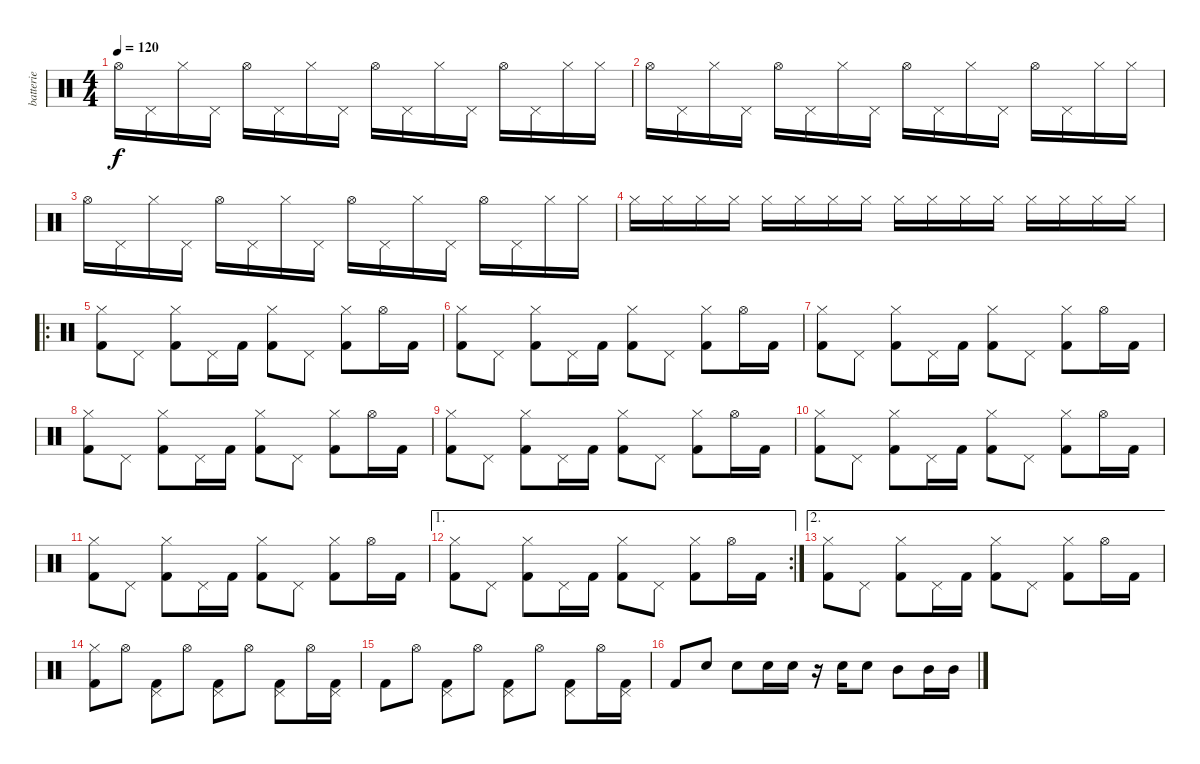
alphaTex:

\track ("batterie" "batterie") {instrument percussion}
\staff {score}
\articulation defaults
\ts (4 4)
\tempo 120
\clef neutral
\ks c "Hi-Hat (open)".16{dy f} "Pedal Hi-Hat (hit)".16 "Hi-Hat (closed)".16 "Pedal Hi-Hat (hit)".16 "Hi-Hat (open)".16 "Pedal Hi-Hat (hit)".16 "Hi-Hat (closed)".16 "Pedal Hi-Hat (hit)".16 "Hi-Hat (open)".16 "Pedal Hi-Hat (hit)".16 "Hi-Hat (closed)".16 "Pedal Hi-Hat (hit)".16 "Hi-Hat (open)".16 "Pedal Hi-Hat (hit)".16 "Hi-Hat (closed)".16 "Hi-Hat (closed)".16
|
"Hi-Hat (open)".16 "Pedal Hi-Hat (hit)".16 "Hi-Hat (closed)".16 "Pedal Hi-Hat (hit)".16 "Hi-Hat (open)".16 "Pedal Hi-Hat (hit)".16 "Hi-Hat (closed)".16 "Pedal Hi-Hat (hit)".16 "Hi-Hat (open)".16 "Pedal Hi-Hat (hit)".16 "Hi-Hat (closed)".16 "Pedal Hi-Hat (hit)".16 "Hi-Hat (open)".16 "Pedal Hi-Hat (hit)".16 "Hi-Hat (closed)".16 "Hi-Hat (closed)".16 |
"Hi-Hat (open)".16 "Pedal Hi-Hat (hit)".16 "Hi-Hat (closed)".16 "Pedal Hi-Hat (hit)".16 "Hi-Hat (open)".16 "Pedal Hi-Hat (hit)".16 "Hi-Hat (closed)".16 "Pedal Hi-Hat (hit)".16 "Hi-Hat (open)".16 "Pedal Hi-Hat (hit)".16 "Hi-Hat (closed)".16 "Pedal Hi-Hat (hit)".16 "Hi-Hat (open)".16 "Pedal Hi-Hat (hit)".16 "Hi-Hat (closed)".16 "Hi-Hat (closed)".16 |
"Hi-Hat (closed)".16 "Hi-Hat (closed)".16 "Hi-Hat (closed)".16 "Hi-Hat (closed)".16 "Hi-Hat (closed)".16 "Hi-Hat (closed)".16 "Hi-Hat (closed)".16 "Hi-Hat (closed)".16 "Hi-Hat (closed)".16 "Hi-Hat (closed)".16 "Hi-Hat (closed)".16 "Hi-Hat (closed)".16 "Hi-Hat (closed)".16 "Hi-Hat (closed)".16 "Hi-Hat (closed)".16 "Hi-Hat (closed)".16 |
\ro
("Kick (hit) 2" "Hi-Hat (closed)").8 "Pedal Hi-Hat (hit)".8 ("Kick (hit) 2" "Hi-Hat (closed)").8 "Pedal Hi-Hat (hit)".16 "Kick (hit) 2".16 ("Kick (hit) 2" "Hi-Hat (closed)").8 "Pedal Hi-Hat (hit)".8 ("Kick (hit) 2" "Hi-Hat (closed)").8 "Hi-Hat (open)".16 "Kick (hit) 2".16 |
("Kick (hit) 2" "Hi-Hat (closed)").8 "Pedal Hi-Hat (hit)".8 ("Kick (hit) 2" "Hi-Hat (closed)").8 "Pedal Hi-Hat (hit)".16 "Kick (hit) 2".16 ("Kick (hit) 2" "Hi-Hat (closed)").8 "Pedal Hi-Hat (hit)".8 ("Kick (hit) 2" "Hi-Hat (closed)").8 "Hi-Hat (open)".16 "Kick (hit) 2".16 |
("Kick (hit) 2" "Hi-Hat (closed)").8 "Pedal Hi-Hat (hit)".8 ("Kick (hit) 2" "Hi-Hat (closed)").8 "Pedal Hi-Hat (hit)".16 "Kick (hit) 2".16 ("Kick (hit) 2" "Hi-Hat (closed)").8 "Pedal Hi-Hat (hit)".8 ("Kick (hit) 2" "Hi-Hat (closed)").8 "Hi-Hat (open)".16 "Kick (hit) 2".16 |
("Kick (hit) 2" "Hi-Hat (closed)").8 "Pedal Hi-Hat (hit)".8 ("Kick (hit) 2" "Hi-Hat (closed)").8 "Pedal Hi-Hat (hit)".16 "Kick (hit) 2".16 ("Kick (hit) 2" "Hi-Hat (closed)").8 "Pedal Hi-Hat (hit)".8 ("Kick (hit) 2" "Hi-Hat (closed)").8 "Hi-Hat (open)".16 "Kick (hit) 2".16 |
("Kick (hit) 2" "Hi-Hat (closed)").8 "Pedal Hi-Hat (hit)".8 ("Kick (hit) 2" "Hi-Hat (closed)").8 "Pedal Hi-Hat (hit)".16 "Kick (hit) 2".16 ("Kick (hit) 2" "Hi-Hat (closed)").8 "Pedal Hi-Hat (hit)".8 ("Kick (hit) 2" "Hi-Hat (closed)").8 "Hi-Hat (open)".16 "Kick (hit) 2".16 |
("Kick (hit) 2" "Hi-Hat (closed)").8 "Pedal Hi-Hat (hit)".8 ("Kick (hit) 2" "Hi-Hat (closed)").8 "Pedal Hi-Hat (hit)".16 "Kick (hit) 2".16 ("Kick (hit) 2" "Hi-Hat (closed)").8 "Pedal Hi-Hat (hit)".8 ("Kick (hit) 2" "Hi-Hat (closed)").8 "Hi-Hat (open)".16 "Kick (hit) 2".16 |
("Kick (hit) 2" "Hi-Hat (closed)").8 "Pedal Hi-Hat (hit)".8 ("Kick (hit) 2" "Hi-Hat (closed)").8 "Pedal Hi-Hat (hit)".16 "Kick (hit) 2".16 ("Kick (hit) 2" "Hi-Hat (closed)").8 "Pedal Hi-Hat (hit)".8 ("Kick (hit) 2" "Hi-Hat (closed)").8 "Hi-Hat (open)".16 "Kick (hit) 2".16 |
\ae 1
\rc 2
("Kick (hit) 2" "Hi-Hat (closed)").8 "Pedal Hi-Hat (hit)".8 ("Kick (hit) 2" "Hi-Hat (closed)").8 "Pedal Hi-Hat (hit)".16 "Kick (hit) 2".16 ("Kick (hit) 2" "Hi-Hat (closed)").8 "Pedal Hi-Hat (hit)".8 ("Kick (hit) 2" "Hi-Hat (closed)").8 "Hi-Hat (open)".16 "Kick (hit) 2".16 |
\ae 2
("Kick (hit) 2" "Hi-Hat (closed)").8 "Pedal Hi-Hat (hit)".8 ("Kick (hit) 2" "Hi-Hat (closed)").8 "Pedal Hi-Hat (hit)".16 "Kick (hit) 2".16 ("Kick (hit) 2" "Hi-Hat (closed)").8 "Pedal Hi-Hat (hit)".8 ("Kick (hit) 2" "Hi-Hat (closed)").8 "Hi-Hat (open)".16 "Kick (hit) 2".16 |
("Kick (hit) 2" "Hi-Hat (closed)").8 "Hi-Hat (open)".8 ("Kick (hit) 2" "Pedal Hi-Hat (hit)").8 "Hi-Hat (open)".8 ("Kick (hit) 2" "Pedal Hi-Hat (hit)").8 "Hi-Hat (open)".8 ("Kick (hit) 2" "Pedal Hi-Hat (hit)").8 "Hi-Hat (open)".16 ("Kick (hit) 2" "Pedal Hi-Hat (hit)").16 |
"Kick (hit) 2".8 "Hi-Hat (open)".8 ("Kick (hit) 2" "Pedal Hi-Hat (hit)").8 "Hi-Hat (open)".8 ("Kick (hit) 2" "Pedal Hi-Hat (hit)").8 "Hi-Hat (open)".8 ("Kick (hit) 2" "Pedal Hi-Hat (hit)").8 "Hi-Hat (open)".16 ("Kick (hit) 2" "Pedal Hi-Hat (hit)").16 |
"Kick (hit) 2".8 "Electric Snare (hit)".8 "Electric Snare (hit)".8 "Electric Snare (hit)".16 "Electric Snare (hit)".16 r.16 "Electric Snare (hit)".16 "Electric Snare (hit)".8 "Mid Tom (hit)".8 "Mid Tom (hit)".16 "Mid Tom (hit)".16
